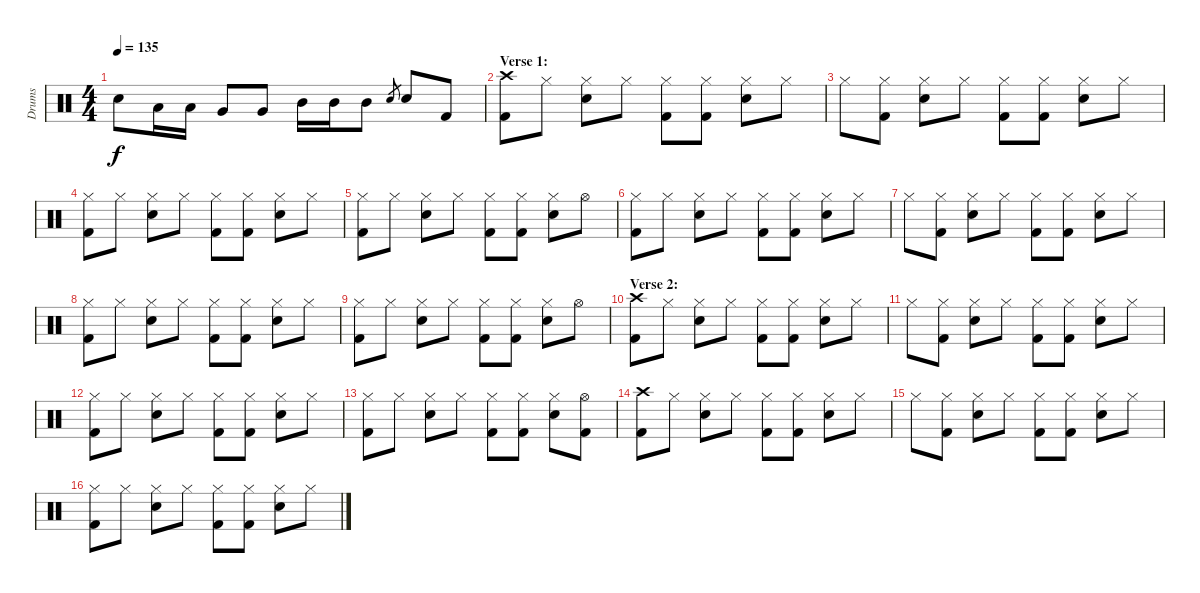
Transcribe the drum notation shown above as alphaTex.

\track ("Drums" "Drums") {instrument percussion}
\staff {score}
\articulation defaults
\ts (4 4)
\tempo 135
\clef neutral
\ks c "Electric Snare (hit)".8{dy f} "Low Tom (hit)".16 "Low Tom (hit)".16 "Very Low Tom (hit)".8 "Very Low Tom (hit)".8 "Mid Tom (hit)".16 "Mid Tom (hit)".16 "Mid Tom (hit)".8 "Electric Snare (hit)".8{gr} "Electric Snare (hit)".8 "Kick (hit) 2".8
|
\section ("" "Verse 1:")
("Crash high (hit)" "Kick (hit) 2").8 "Hi-Hat (closed)".8 ("Hi-Hat (closed)" "Electric Snare (hit)").8 "Hi-Hat (closed)".8 ("Hi-Hat (closed)" "Kick (hit) 2").8 ("Hi-Hat (closed)" "Kick (hit) 2").8 ("Hi-Hat (closed)" "Electric Snare (hit)").8 "Hi-Hat (closed)".8 |
"Hi-Hat (closed)".8 ("Hi-Hat (closed)" "Kick (hit) 2").8 ("Hi-Hat (closed)" "Electric Snare (hit)").8 "Hi-Hat (closed)".8 ("Hi-Hat (closed)" "Kick (hit) 2").8 ("Hi-Hat (closed)" "Kick (hit) 2").8 ("Hi-Hat (closed)" "Electric Snare (hit)").8 "Hi-Hat (closed)".8 |
("Hi-Hat (closed)" "Kick (hit) 2").8 "Hi-Hat (closed)".8 ("Hi-Hat (closed)" "Electric Snare (hit)").8 "Hi-Hat (closed)".8 ("Hi-Hat (closed)" "Kick (hit) 2").8 ("Hi-Hat (closed)" "Kick (hit) 2").8 ("Hi-Hat (closed)" "Electric Snare (hit)").8 "Hi-Hat (closed)".8 |
("Hi-Hat (closed)" "Kick (hit) 2").8 "Hi-Hat (closed)".8 ("Hi-Hat (closed)" "Electric Snare (hit)").8 "Hi-Hat (closed)".8 ("Hi-Hat (closed)" "Kick (hit) 2").8 ("Hi-Hat (closed)" "Kick (hit) 2").8 ("Hi-Hat (closed)" "Electric Snare (hit)").8 "Hi-Hat (open)".8 |
("Hi-Hat (closed)" "Kick (hit) 2").8 "Hi-Hat (closed)".8 ("Hi-Hat (closed)" "Electric Snare (hit)").8 "Hi-Hat (closed)".8 ("Hi-Hat (closed)" "Kick (hit) 2").8 ("Hi-Hat (closed)" "Kick (hit) 2").8 ("Hi-Hat (closed)" "Electric Snare (hit)").8 "Hi-Hat (closed)".8 |
"Hi-Hat (closed)".8 ("Hi-Hat (closed)" "Kick (hit) 2").8 ("Hi-Hat (closed)" "Electric Snare (hit)").8 "Hi-Hat (closed)".8 ("Hi-Hat (closed)" "Kick (hit) 2").8 ("Hi-Hat (closed)" "Kick (hit) 2").8 ("Hi-Hat (closed)" "Electric Snare (hit)").8 "Hi-Hat (closed)".8 |
("Hi-Hat (closed)" "Kick (hit) 2").8 "Hi-Hat (closed)".8 ("Hi-Hat (closed)" "Electric Snare (hit)").8 "Hi-Hat (closed)".8 ("Hi-Hat (closed)" "Kick (hit) 2").8 ("Hi-Hat (closed)" "Kick (hit) 2").8 ("Hi-Hat (closed)" "Electric Snare (hit)").8 "Hi-Hat (closed)".8 |
("Hi-Hat (closed)" "Kick (hit) 2").8 "Hi-Hat (closed)".8 ("Hi-Hat (closed)" "Electric Snare (hit)").8 "Hi-Hat (closed)".8 ("Hi-Hat (closed)" "Kick (hit) 2").8 ("Hi-Hat (closed)" "Kick (hit) 2").8 ("Hi-Hat (closed)" "Electric Snare (hit)").8 "Hi-Hat (open)".8 |
\section ("" "Verse 2:")
("Crash high (hit)" "Kick (hit) 2").8 "Hi-Hat (closed)".8 ("Hi-Hat (closed)" "Electric Snare (hit)").8 "Hi-Hat (closed)".8 ("Hi-Hat (closed)" "Kick (hit) 2").8 ("Hi-Hat (closed)" "Kick (hit) 2").8 ("Hi-Hat (closed)" "Electric Snare (hit)").8 "Hi-Hat (closed)".8 |
"Hi-Hat (closed)".8 ("Hi-Hat (closed)" "Kick (hit) 2").8 ("Hi-Hat (closed)" "Electric Snare (hit)").8 "Hi-Hat (closed)".8 ("Hi-Hat (closed)" "Kick (hit) 2").8 ("Hi-Hat (closed)" "Kick (hit) 2").8 ("Hi-Hat (closed)" "Electric Snare (hit)").8 "Hi-Hat (closed)".8 |
("Hi-Hat (closed)" "Kick (hit) 2").8 "Hi-Hat (closed)".8 ("Hi-Hat (closed)" "Electric Snare (hit)").8 "Hi-Hat (closed)".8 ("Hi-Hat (closed)" "Kick (hit) 2").8 ("Hi-Hat (closed)" "Kick (hit) 2").8 ("Hi-Hat (closed)" "Electric Snare (hit)").8 "Hi-Hat (closed)".8 |
("Hi-Hat (closed)" "Kick (hit) 2").8 "Hi-Hat (closed)".8 ("Hi-Hat (closed)" "Electric Snare (hit)").8 "Hi-Hat (closed)".8 ("Hi-Hat (closed)" "Kick (hit) 2").8 ("Hi-Hat (closed)" "Kick (hit) 2").8 ("Hi-Hat (closed)" "Electric Snare (hit)").8 ("Hi-Hat (open)" "Kick (hit) 2").8 |
("Crash high (hit)" "Kick (hit) 2").8 "Hi-Hat (closed)".8 ("Hi-Hat (closed)" "Electric Snare (hit)").8 "Hi-Hat (closed)".8 ("Hi-Hat (closed)" "Kick (hit) 2").8 ("Hi-Hat (closed)" "Kick (hit) 2").8 ("Hi-Hat (closed)" "Electric Snare (hit)").8 "Hi-Hat (closed)".8 |
"Hi-Hat (closed)".8 ("Hi-Hat (closed)" "Kick (hit) 2").8 ("Hi-Hat (closed)" "Electric Snare (hit)").8 "Hi-Hat (closed)".8 ("Hi-Hat (closed)" "Kick (hit) 2").8 ("Hi-Hat (closed)" "Kick (hit) 2").8 ("Hi-Hat (closed)" "Electric Snare (hit)").8 "Hi-Hat (closed)".8 |
("Hi-Hat (closed)" "Kick (hit) 2").8 "Hi-Hat (closed)".8 ("Hi-Hat (closed)" "Electric Snare (hit)").8 "Hi-Hat (closed)".8 ("Hi-Hat (closed)" "Kick (hit) 2").8 ("Hi-Hat (closed)" "Kick (hit) 2").8 ("Hi-Hat (closed)" "Electric Snare (hit)").8 "Hi-Hat (closed)".8
